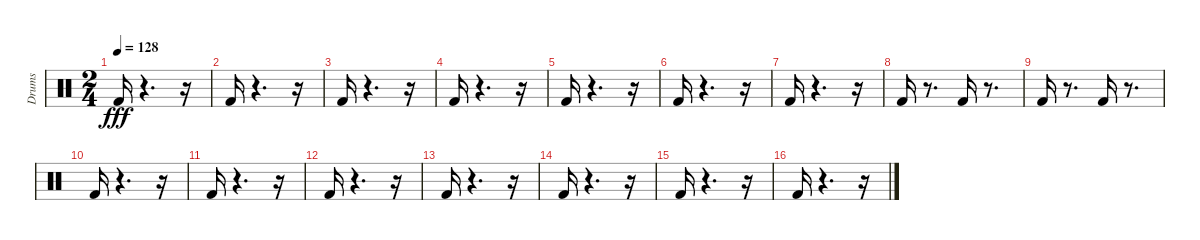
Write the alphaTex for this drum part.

\track ("Drums" "Drums") {instrument percussion}
\staff {score}
\articulation defaults
\ts (2 4)
\tempo 128
\clef neutral
\ks c "Kick (hit) 2".16{dy fff}
r.4{d} r.16 |
"Kick (hit) 2".16 r.4{d} r.16 |
"Kick (hit) 2".16 r.4{d} r.16 |
"Kick (hit) 2".16 r.4{d} r.16 |
"Kick (hit) 2".16 r.4{d} r.16 |
"Kick (hit) 2".16 r.4{d} r.16 |
"Kick (hit) 2".16 r.4{d} r.16 |
"Kick (hit) 2".16 r.8{d} "Kick (hit) 2".16 r.8{d} |
"Kick (hit) 2".16 r.8{d} "Kick (hit) 2".16 r.8{d} |
"Kick (hit) 2".16 r.4{d} r.16 |
"Kick (hit) 2".16 r.4{d} r.16 |
"Kick (hit) 2".16 r.4{d} r.16 |
"Kick (hit) 2".16 r.4{d} r.16 |
"Kick (hit) 2".16 r.4{d} r.16 |
"Kick (hit) 2".16 r.4{d} r.16 |
"Kick (hit) 2".16 r.4{d} r.16
